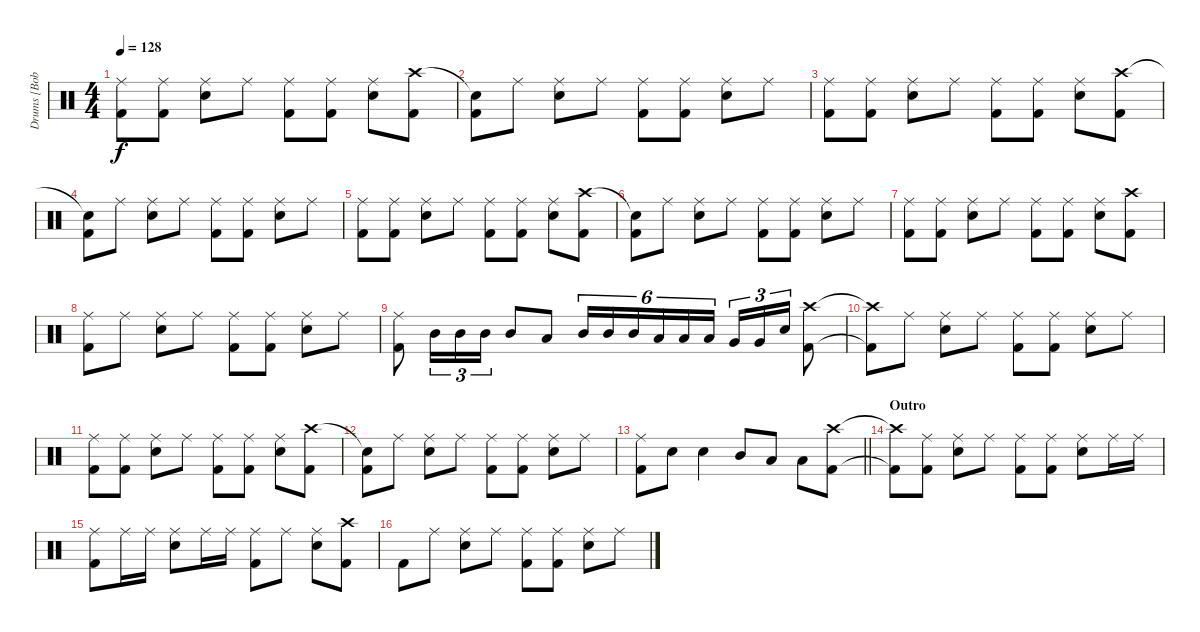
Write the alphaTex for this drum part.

\track ("Drums [Bobby Blotzer]" "Drums [Bob") {instrument percussion}
\staff {score}
\articulation defaults
\ts (4 4)
\tempo 128
\clef neutral
\ks c
("Ride (middle)" "Kick (hit) 2").8{dy f} ("Ride (middle)" "Kick (hit) 2").8 ("Ride (middle)" "Electric Snare (hit)").8 "Ride (middle)".8 ("Ride (middle)" "Kick (hit) 2").8 ("Ride (middle)" "Kick (hit) 2").8 ("Ride (middle)" "Electric Snare (hit)").8 ("Crash high (hit)" "Kick (hit) 2").8 |
("Snare (hit)"{t} "Kick (hit) 2").8 "Ride (middle)".8 ("Ride (middle)" "Electric Snare (hit)").8 "Ride (middle)".8 ("Ride (middle)" "Kick (hit) 2").8 ("Ride (middle)" "Kick (hit) 2").8 ("Ride (middle)" "Electric Snare (hit)").8 "Ride (middle)".8 |
("Ride (middle)" "Kick (hit) 2").8 ("Ride (middle)" "Kick (hit) 2").8 ("Ride (middle)" "Electric Snare (hit)").8 "Ride (middle)".8 ("Ride (middle)" "Kick (hit) 2").8 ("Ride (middle)" "Kick (hit) 2").8 ("Ride (middle)" "Electric Snare (hit)").8 ("Crash high (hit)" "Kick (hit) 2").8 |
("Snare (hit)"{t} "Kick (hit) 2").8 "Ride (middle)".8 ("Ride (middle)" "Electric Snare (hit)").8 "Ride (middle)".8 ("Ride (middle)" "Kick (hit) 2").8 ("Ride (middle)" "Kick (hit) 2").8 ("Ride (middle)" "Electric Snare (hit)").8 "Ride (middle)".8 |
("Ride (middle)" "Kick (hit) 2").8 ("Ride (middle)" "Kick (hit) 2").8 ("Ride (middle)" "Electric Snare (hit)").8 "Ride (middle)".8 ("Ride (middle)" "Kick (hit) 2").8 ("Ride (middle)" "Kick (hit) 2").8 ("Ride (middle)" "Electric Snare (hit)").8 ("Crash high (hit)" "Kick (hit) 2").8 |
("Snare (hit)"{t} "Kick (hit) 2").8 "Ride (middle)".8 ("Ride (middle)" "Electric Snare (hit)").8 "Ride (middle)".8 ("Ride (middle)" "Kick (hit) 2").8 ("Ride (middle)" "Kick (hit) 2").8 ("Ride (middle)" "Electric Snare (hit)").8 "Ride (middle)".8 |
("Ride (middle)" "Kick (hit) 2").8 ("Ride (middle)" "Kick (hit) 2").8 ("Ride (middle)" "Electric Snare (hit)").8 "Ride (middle)".8 ("Ride (middle)" "Kick (hit) 2").8 ("Ride (middle)" "Kick (hit) 2").8 ("Ride (middle)" "Electric Snare (hit)").8 ("Crash high (hit)" "Kick (hit) 2").8 |
("Ride (middle)" "Kick (hit) 2").8 "Ride (middle)".8 ("Ride (middle)" "Electric Snare (hit)").8 "Ride (middle)".8 ("Ride (middle)" "Kick (hit) 2").8 ("Ride (middle)" "Kick (hit) 2").8 ("Ride (middle)" "Electric Snare (hit)").8 "Ride (middle)".8 |
("Ride (middle)" "Kick (hit) 2").8 "Mid Tom (hit)".16{tu (3 2)} "Mid Tom (hit)".16{tu (3 2)} "Mid Tom (hit)".16{tu (3 2)} "Mid Tom (hit)".8 "Low Tom (hit)".8 "Mid Tom (hit)".16{tu (6 4)} "Mid Tom (hit)".16{tu (6 4)} "Mid Tom (hit)".16{tu (6 4)} "Low Tom (hit)".16{tu (6 4)} "Low Tom (hit)".16{tu (6 4)} "Low Tom (hit)".16{tu (6 4)} "Very Low Tom (hit)".16{tu (3 2)} "Very Low Tom (hit)".16{tu (3 2)} "Electric Snare (hit)".16{tu (3 2)} ("Crash high (hit)" "Kick (hit) 2").8 |
("Crash high (hit)"{t} "Kick (hit) 2"{t}).8 "Ride (middle)".8 ("Ride (middle)" "Electric Snare (hit)").8 "Ride (middle)".8 ("Ride (middle)" "Kick (hit) 2").8 ("Ride (middle)" "Kick (hit) 2").8 ("Ride (middle)" "Electric Snare (hit)").8 "Ride (middle)".8 |
("Ride (middle)" "Kick (hit) 2").8 ("Ride (middle)" "Kick (hit) 2").8 ("Ride (middle)" "Electric Snare (hit)").8 "Ride (middle)".8 ("Ride (middle)" "Kick (hit) 2").8 ("Ride (middle)" "Kick (hit) 2").8 ("Ride (middle)" "Electric Snare (hit)").8 ("Crash high (hit)" "Kick (hit) 2").8 |
("Snare (hit)"{t} "Kick (hit) 2").8 "Ride (middle)".8 ("Ride (middle)" "Electric Snare (hit)").8 "Ride (middle)".8 ("Ride (middle)" "Kick (hit) 2").8 ("Ride (middle)" "Kick (hit) 2").8 ("Ride (middle)" "Electric Snare (hit)").8 "Ride (middle)".8 |
\barLineRight lightlight
("Ride (middle)" "Kick (hit) 2").8 "Electric Snare (hit)".8 "Electric Snare (hit)".4 "Mid Tom (hit)".8 "Low Tom (hit)".8 "Low Tom (hit)".8 ("Crash high (hit)" "Kick (hit) 2").8 |
\section ("" "Outro")
("Crash high (hit)"{t} "Kick (hit) 2"{t}).8 ("Ride (middle)" "Kick (hit) 2").8 ("Ride (middle)" "Electric Snare (hit)").8 "Ride (middle)".8 ("Ride (middle)" "Kick (hit) 2").8 ("Ride (middle)" "Kick (hit) 2").8 ("Ride (middle)" "Electric Snare (hit)").8 "Ride (middle)".16 "Ride (middle)".16 |
("Ride (middle)" "Kick (hit) 2").8 "Ride (middle)".16 "Ride (middle)".16 ("Ride (middle)" "Electric Snare (hit)").8 "Ride (middle)".16 "Ride (middle)".16 ("Ride (middle)" "Kick (hit) 2").8 "Ride (middle)".8 ("Ride (middle)" "Electric Snare (hit)").8 ("Crash high (hit)" "Kick (hit) 2").8 |
"Kick (hit) 2".8 "Ride (middle)".8 ("Ride (middle)" "Electric Snare (hit)").8 "Ride (middle)".8 ("Ride (middle)" "Kick (hit) 2").8 ("Ride (middle)" "Kick (hit) 2").8 ("Ride (middle)" "Electric Snare (hit)").8 "Ride (middle)".8
